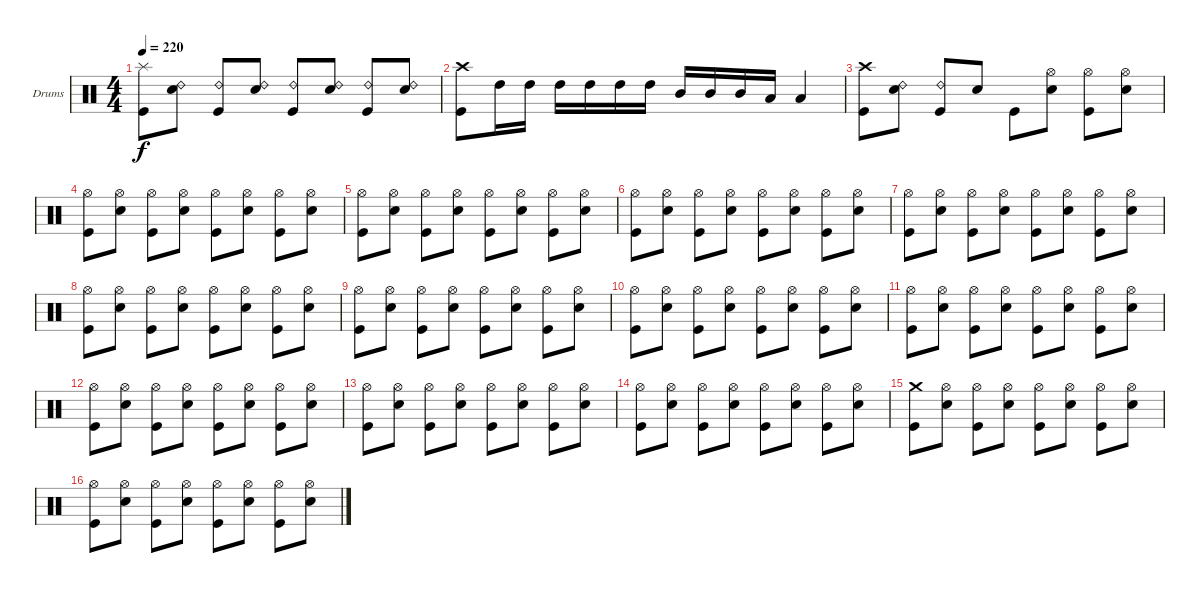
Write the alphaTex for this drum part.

\bracketExtendMode groupsimilarinstruments
\firstSystemTrackNameOrientation horizontal
\otherSystemsTrackNameOrientation horizontal
\track ("Dave Lombardo" "Drums") {instrument percussion}
\staff {score}
\articulation defaults
\ts (4 4)
\tempo 220
\clef neutral
\ks c
("Kick (hit)" "Splash (hit)").8{dy f} ("Snare (hit) 2" "Ride (bell) 2").8 ("Kick (hit)" "Ride (bell) 2").8 ("Snare (hit) 2" "Ride (bell) 2").8 ("Kick (hit)" "Ride (bell) 2").8 ("Snare (hit) 2" "Ride (bell) 2").8 ("Kick (hit)" "Ride (bell) 2").8 ("Snare (hit) 2" "Ride (bell) 2").8 |
("Kick (hit)" "Crash high (hit)").8 "High Tom (hit)".16 "High Tom (hit)".16 "High Tom (hit)".16 "High Tom (hit)".16 "High Tom (hit)".16 "High Tom (hit)".16 "Mid Tom (hit)".16 "Mid Tom (hit)".16 "Mid Tom (hit)".16 "Low Tom (hit)".16 "Low Tom (hit)".4 |
("Kick (hit)" "Crash high (hit)").8 ("Snare (hit) 2" "Ride (bell) 2").8 ("Kick (hit)" "Ride (bell) 2").8 "Snare (hit) 2".8 "Kick (hit)".8 ("Snare (hit) 2" "Hi-Hat (open)").8 ("Kick (hit)" "Hi-Hat (open)").8 ("Snare (hit) 2" "Hi-Hat (open)").8 |
("Kick (hit)" "Hi-Hat (open)").8 ("Snare (hit) 2" "Hi-Hat (open)").8 ("Kick (hit)" "Hi-Hat (open)").8 ("Snare (hit) 2" "Hi-Hat (open)").8 ("Kick (hit)" "Hi-Hat (open)").8 ("Snare (hit) 2" "Hi-Hat (open)").8 ("Kick (hit)" "Hi-Hat (open)").8 ("Snare (hit) 2" "Hi-Hat (open)").8 |
("Kick (hit)" "Hi-Hat (open)").8 ("Snare (hit) 2" "Hi-Hat (open)").8 ("Kick (hit)" "Hi-Hat (open)").8 ("Snare (hit) 2" "Hi-Hat (open)").8 ("Kick (hit)" "Hi-Hat (open)").8 ("Snare (hit) 2" "Hi-Hat (open)").8 ("Kick (hit)" "Hi-Hat (open)").8 ("Snare (hit) 2" "Hi-Hat (open)").8 |
("Kick (hit)" "Hi-Hat (open)").8 ("Snare (hit) 2" "Hi-Hat (open)").8 ("Kick (hit)" "Hi-Hat (open)").8 ("Snare (hit) 2" "Hi-Hat (open)").8 ("Kick (hit)" "Hi-Hat (open)").8 ("Snare (hit) 2" "Hi-Hat (open)").8 ("Kick (hit)" "Hi-Hat (open)").8 ("Snare (hit) 2" "Hi-Hat (open)").8 |
("Kick (hit)" "Hi-Hat (open)").8 ("Snare (hit) 2" "Hi-Hat (open)").8 ("Kick (hit)" "Hi-Hat (open)").8 ("Snare (hit) 2" "Hi-Hat (open)").8 ("Kick (hit)" "Hi-Hat (open)").8 ("Snare (hit) 2" "Hi-Hat (open)").8 ("Kick (hit)" "Hi-Hat (open)").8 ("Snare (hit) 2" "Hi-Hat (open)").8 |
("Kick (hit)" "Hi-Hat (open)").8 ("Snare (hit) 2" "Hi-Hat (open)").8 ("Kick (hit)" "Hi-Hat (open)").8 ("Snare (hit) 2" "Hi-Hat (open)").8 ("Kick (hit)" "Hi-Hat (open)").8 ("Snare (hit) 2" "Hi-Hat (open)").8 ("Kick (hit)" "Hi-Hat (open)").8 ("Snare (hit) 2" "Hi-Hat (open)").8 |
("Kick (hit)" "Hi-Hat (open)").8 ("Snare (hit) 2" "Hi-Hat (open)").8 ("Kick (hit)" "Hi-Hat (open)").8 ("Snare (hit) 2" "Hi-Hat (open)").8 ("Kick (hit)" "Hi-Hat (open)").8 ("Snare (hit) 2" "Hi-Hat (open)").8 ("Kick (hit)" "Hi-Hat (open)").8 ("Snare (hit) 2" "Hi-Hat (open)").8 |
("Kick (hit)" "Hi-Hat (open)").8 ("Snare (hit) 2" "Hi-Hat (open)").8 ("Kick (hit)" "Hi-Hat (open)").8 ("Snare (hit) 2" "Hi-Hat (open)").8 ("Kick (hit)" "Hi-Hat (open)").8 ("Snare (hit) 2" "Hi-Hat (open)").8 ("Kick (hit)" "Hi-Hat (open)").8 ("Snare (hit) 2" "Hi-Hat (open)").8 |
("Kick (hit)" "Hi-Hat (open)").8 ("Snare (hit) 2" "Hi-Hat (open)").8 ("Kick (hit)" "Hi-Hat (open)").8 ("Snare (hit) 2" "Hi-Hat (open)").8 ("Kick (hit)" "Hi-Hat (open)").8 ("Snare (hit) 2" "Hi-Hat (open)").8 ("Kick (hit)" "Hi-Hat (open)").8 ("Snare (hit) 2" "Hi-Hat (open)").8 |
("Kick (hit)" "Hi-Hat (open)").8 ("Snare (hit) 2" "Hi-Hat (open)").8 ("Kick (hit)" "Hi-Hat (open)").8 ("Snare (hit) 2" "Hi-Hat (open)").8 ("Kick (hit)" "Hi-Hat (open)").8 ("Snare (hit) 2" "Hi-Hat (open)").8 ("Kick (hit)" "Hi-Hat (open)").8 ("Snare (hit) 2" "Hi-Hat (open)").8 |
("Kick (hit)" "Hi-Hat (open)").8 ("Snare (hit) 2" "Hi-Hat (open)").8 ("Kick (hit)" "Hi-Hat (open)").8 ("Snare (hit) 2" "Hi-Hat (open)").8 ("Kick (hit)" "Hi-Hat (open)").8 ("Snare (hit) 2" "Hi-Hat (open)").8 ("Kick (hit)" "Hi-Hat (open)").8 ("Snare (hit) 2" "Hi-Hat (open)").8 |
("Kick (hit)" "Hi-Hat (open)").8 ("Snare (hit) 2" "Hi-Hat (open)").8 ("Kick (hit)" "Hi-Hat (open)").8 ("Snare (hit) 2" "Hi-Hat (open)").8 ("Kick (hit)" "Hi-Hat (open)").8 ("Snare (hit) 2" "Hi-Hat (open)").8 ("Kick (hit)" "Hi-Hat (open)").8 ("Snare (hit) 2" "Hi-Hat (open)").8 |
("Kick (hit)" "Crash medium (hit)").8 ("Snare (hit) 2" "Hi-Hat (open)").8 ("Kick (hit)" "Hi-Hat (open)").8 ("Snare (hit) 2" "Hi-Hat (open)").8 ("Kick (hit)" "Hi-Hat (open)").8 ("Snare (hit) 2" "Hi-Hat (open)").8 ("Kick (hit)" "Hi-Hat (open)").8 ("Snare (hit) 2" "Hi-Hat (open)").8 |
("Kick (hit)" "Hi-Hat (open)").8 ("Snare (hit) 2" "Hi-Hat (open)").8 ("Kick (hit)" "Hi-Hat (open)").8 ("Snare (hit) 2" "Hi-Hat (open)").8 ("Kick (hit)" "Hi-Hat (open)").8 ("Snare (hit) 2" "Hi-Hat (open)").8 ("Kick (hit)" "Hi-Hat (open)").8 ("Snare (hit) 2" "Hi-Hat (open)").8
